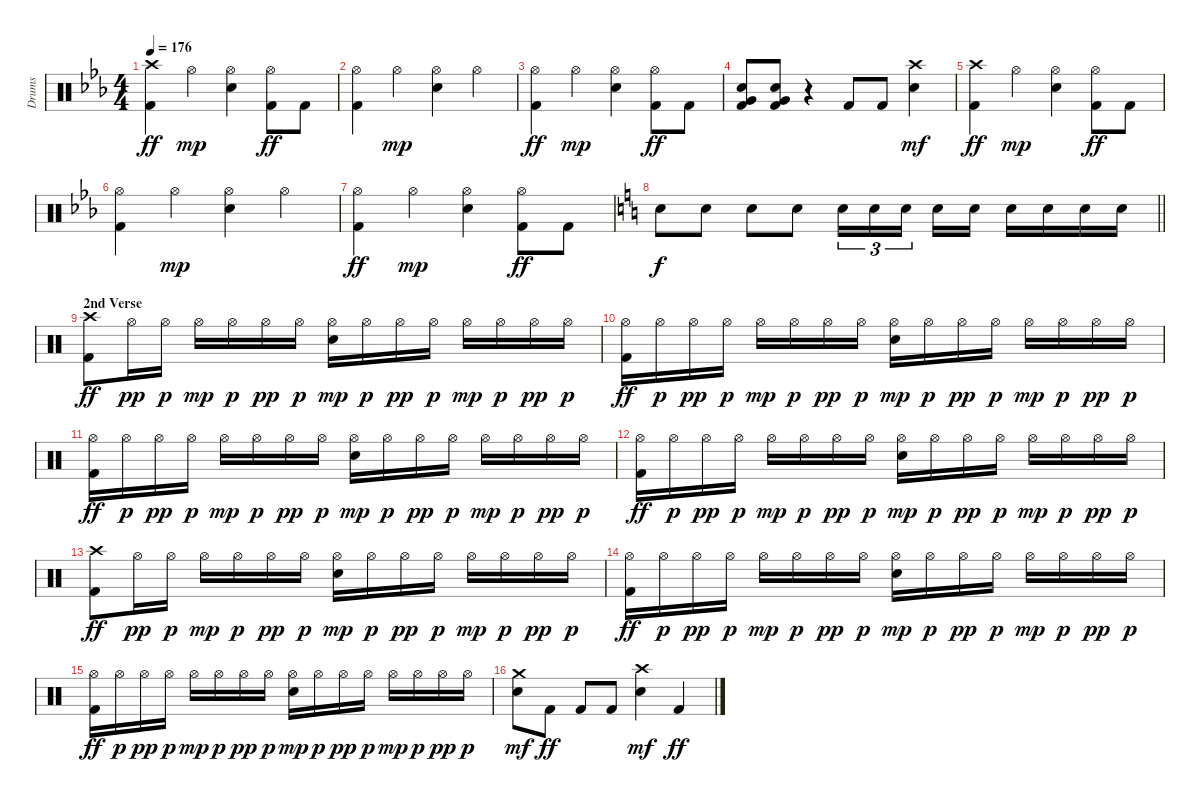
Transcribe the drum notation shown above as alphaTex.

\track ("Drums" "Drums") {instrument percussion}
\staff {score}
\articulation defaults
\ts (4 4)
\tempo 176
\clef neutral
\ks eb
("Crash high (hit)" "Kick (hit) 2").4{dy ff} "Hi-Hat (open)".4{dy mp} ("Hi-Hat (open)" "Electric Snare (hit)").4 ("Hi-Hat (open)" "Kick (hit) 2").8{dy ff} "Kick (hit) 2".8 |
("Hi-Hat (open)" "Kick (hit) 2").4 "Hi-Hat (open)".4{dy mp} ("Hi-Hat (open)" "Electric Snare (hit)").4 "Hi-Hat (open)".4 |
("Hi-Hat (open)" "Kick (hit) 2").4{dy ff} "Hi-Hat (open)".4{dy mp} ("Hi-Hat (open)" "Electric Snare (hit)").4 ("Hi-Hat (open)" "Kick (hit) 2").8{dy ff} "Kick (hit) 2".8 |
("Very Low Tom (hit)" "Electric Snare (hit)" "Kick (hit) 2").8 ("Very Low Tom (hit)" "Electric Snare (hit)" "Kick (hit) 2").8 r.4 "Kick (hit) 2".8 "Kick (hit) 2".8 ("Crash high (hit)" "Electric Snare (hit)").4{dy mf} |
("Crash high (hit)" "Kick (hit) 2").4{dy ff} "Hi-Hat (open)".4{dy mp} ("Hi-Hat (open)" "Electric Snare (hit)").4 ("Hi-Hat (open)" "Kick (hit) 2").8{dy ff} "Kick (hit) 2".8 |
("Hi-Hat (open)" "Kick (hit) 2").4 "Hi-Hat (open)".4{dy mp} ("Hi-Hat (open)" "Electric Snare (hit)").4 "Hi-Hat (open)".4 |
("Hi-Hat (open)" "Kick (hit) 2").4{dy ff} "Hi-Hat (open)".4{dy mp} ("Hi-Hat (open)" "Electric Snare (hit)").4 ("Hi-Hat (open)" "Kick (hit) 2").8{dy ff} "Kick (hit) 2".8 |
\barLineRight lightlight
\ks c "Electric Snare (hit)".8{dy f} "Electric Snare (hit)".8 "Electric Snare (hit)".8 "Electric Snare (hit)".8 "Electric Snare (hit)".16{tu (3 2)} "Electric Snare (hit)".16{tu (3 2)} "Electric Snare (hit)".16{tu (3 2)} "Electric Snare (hit)".16 "Electric Snare (hit)".16 "Electric Snare (hit)".16 "Electric Snare (hit)".16 "Electric Snare (hit)".16 "Electric Snare (hit)".16
|
\section ("" "2nd Verse")
("Crash high (hit)" "Kick (hit) 2").8{dy ff} "Hi-Hat (open)".16{dy pp} "Hi-Hat (open)".16{dy p} "Hi-Hat (open)".16{dy mp} "Hi-Hat (open)".16{dy p} "Hi-Hat (open)".16{dy pp} "Hi-Hat (open)".16{dy p} ("Hi-Hat (open)" "Electric Snare (hit)").16{dy mp} "Hi-Hat (open)".16{dy p} "Hi-Hat (open)".16{dy pp} "Hi-Hat (open)".16{dy p} "Hi-Hat (open)".16{dy mp} "Hi-Hat (open)".16{dy p} "Hi-Hat (open)".16{dy pp} "Hi-Hat (open)".16{dy p} |
("Hi-Hat (open)" "Kick (hit) 2").16{dy ff} "Hi-Hat (open)".16{dy p} "Hi-Hat (open)".16{dy pp} "Hi-Hat (open)".16{dy p} "Hi-Hat (open)".16{dy mp} "Hi-Hat (open)".16{dy p} "Hi-Hat (open)".16{dy pp} "Hi-Hat (open)".16{dy p} ("Hi-Hat (open)" "Electric Snare (hit)").16{dy mp} "Hi-Hat (open)".16{dy p} "Hi-Hat (open)".16{dy pp} "Hi-Hat (open)".16{dy p} "Hi-Hat (open)".16{dy mp} "Hi-Hat (open)".16{dy p} "Hi-Hat (open)".16{dy pp} "Hi-Hat (open)".16{dy p} |
("Hi-Hat (open)" "Kick (hit) 2").16{dy ff} "Hi-Hat (open)".16{dy p} "Hi-Hat (open)".16{dy pp} "Hi-Hat (open)".16{dy p} "Hi-Hat (open)".16{dy mp} "Hi-Hat (open)".16{dy p} "Hi-Hat (open)".16{dy pp} "Hi-Hat (open)".16{dy p} ("Hi-Hat (open)" "Electric Snare (hit)").16{dy mp} "Hi-Hat (open)".16{dy p} "Hi-Hat (open)".16{dy pp} "Hi-Hat (open)".16{dy p} "Hi-Hat (open)".16{dy mp} "Hi-Hat (open)".16{dy p} "Hi-Hat (open)".16{dy pp} "Hi-Hat (open)".16{dy p} |
("Hi-Hat (open)" "Kick (hit) 2").16{dy ff} "Hi-Hat (open)".16{dy p} "Hi-Hat (open)".16{dy pp} "Hi-Hat (open)".16{dy p} "Hi-Hat (open)".16{dy mp} "Hi-Hat (open)".16{dy p} "Hi-Hat (open)".16{dy pp} "Hi-Hat (open)".16{dy p} ("Hi-Hat (open)" "Electric Snare (hit)").16{dy mp} "Hi-Hat (open)".16{dy p} "Hi-Hat (open)".16{dy pp} "Hi-Hat (open)".16{dy p} "Hi-Hat (open)".16{dy mp} "Hi-Hat (open)".16{dy p} "Hi-Hat (open)".16{dy pp} "Hi-Hat (open)".16{dy p} |
("Crash high (hit)" "Kick (hit) 2").8{dy ff} "Hi-Hat (open)".16{dy pp} "Hi-Hat (open)".16{dy p} "Hi-Hat (open)".16{dy mp} "Hi-Hat (open)".16{dy p} "Hi-Hat (open)".16{dy pp} "Hi-Hat (open)".16{dy p} ("Hi-Hat (open)" "Electric Snare (hit)").16{dy mp} "Hi-Hat (open)".16{dy p} "Hi-Hat (open)".16{dy pp} "Hi-Hat (open)".16{dy p} "Hi-Hat (open)".16{dy mp} "Hi-Hat (open)".16{dy p} "Hi-Hat (open)".16{dy pp} "Hi-Hat (open)".16{dy p} |
("Hi-Hat (open)" "Kick (hit) 2").16{dy ff} "Hi-Hat (open)".16{dy p} "Hi-Hat (open)".16{dy pp} "Hi-Hat (open)".16{dy p} "Hi-Hat (open)".16{dy mp} "Hi-Hat (open)".16{dy p} "Hi-Hat (open)".16{dy pp} "Hi-Hat (open)".16{dy p} ("Hi-Hat (open)" "Electric Snare (hit)").16{dy mp} "Hi-Hat (open)".16{dy p} "Hi-Hat (open)".16{dy pp} "Hi-Hat (open)".16{dy p} "Hi-Hat (open)".16{dy mp} "Hi-Hat (open)".16{dy p} "Hi-Hat (open)".16{dy pp} "Hi-Hat (open)".16{dy p} |
("Hi-Hat (open)" "Kick (hit) 2").16{dy ff} "Hi-Hat (open)".16{dy p} "Hi-Hat (open)".16{dy pp} "Hi-Hat (open)".16{dy p} "Hi-Hat (open)".16{dy mp} "Hi-Hat (open)".16{dy p} "Hi-Hat (open)".16{dy pp} "Hi-Hat (open)".16{dy p} ("Hi-Hat (open)" "Electric Snare (hit)").16{dy mp} "Hi-Hat (open)".16{dy p} "Hi-Hat (open)".16{dy pp} "Hi-Hat (open)".16{dy p} "Hi-Hat (open)".16{dy mp} "Hi-Hat (open)".16{dy p} "Hi-Hat (open)".16{dy pp} "Hi-Hat (open)".16{dy p} |
("Crash medium (hit)" "Electric Snare (hit)").8{dy mf} "Kick (hit) 2".8{dy ff} "Kick (hit) 2".8 "Kick (hit) 2".8 ("Crash high (hit)" "Electric Snare (hit)").4{dy mf} "Kick (hit) 2".4{dy ff}
